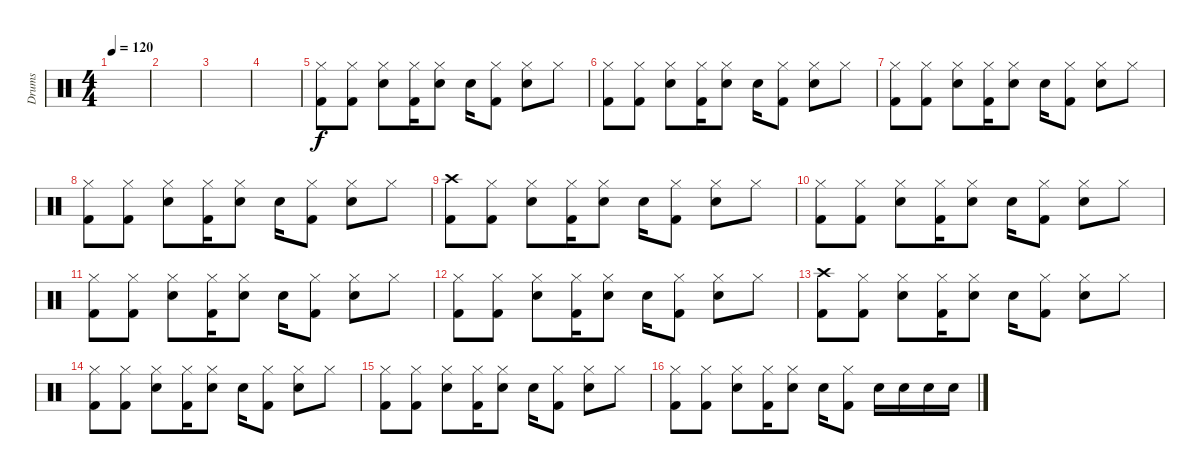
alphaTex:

\track ("Drums" "Drums") {instrument percussion}
\staff {score}
\articulation defaults
\ts (4 4)
\tempo 120
\clef neutral
\ks c
|
|
|
|
("Hi-Hat (closed)" "Kick (hit) 2").8 ("Hi-Hat (closed)" "Kick (hit) 2").8 ("Hi-Hat (closed)" "Electric Snare (hit)").8 ("Hi-Hat (closed)" "Kick (hit) 2").16 ("Hi-Hat (closed)" "Electric Snare (hit)").8 "Electric Snare (hit)".16 ("Hi-Hat (closed)" "Kick (hit) 2").8 ("Hi-Hat (closed)" "Electric Snare (hit)").8 "Hi-Hat (closed)".8 |
("Hi-Hat (closed)" "Kick (hit) 2").8 ("Hi-Hat (closed)" "Kick (hit) 2").8 ("Hi-Hat (closed)" "Electric Snare (hit)").8 ("Hi-Hat (closed)" "Kick (hit) 2").16 ("Hi-Hat (closed)" "Electric Snare (hit)").8 "Electric Snare (hit)".16 ("Hi-Hat (closed)" "Kick (hit) 2").8 ("Hi-Hat (closed)" "Electric Snare (hit)").8 "Hi-Hat (closed)".8 |
("Hi-Hat (closed)" "Kick (hit) 2").8 ("Hi-Hat (closed)" "Kick (hit) 2").8 ("Hi-Hat (closed)" "Electric Snare (hit)").8 ("Hi-Hat (closed)" "Kick (hit) 2").16 ("Hi-Hat (closed)" "Electric Snare (hit)").8 "Electric Snare (hit)".16 ("Hi-Hat (closed)" "Kick (hit) 2").8 ("Hi-Hat (closed)" "Electric Snare (hit)").8 "Hi-Hat (closed)".8 |
("Hi-Hat (closed)" "Kick (hit) 2").8 ("Hi-Hat (closed)" "Kick (hit) 2").8 ("Hi-Hat (closed)" "Electric Snare (hit)").8 ("Hi-Hat (closed)" "Kick (hit) 2").16 ("Hi-Hat (closed)" "Electric Snare (hit)").8 "Electric Snare (hit)".16 ("Hi-Hat (closed)" "Kick (hit) 2").8 ("Hi-Hat (closed)" "Electric Snare (hit)").8 "Hi-Hat (closed)".8 |
("Crash high (hit)" "Kick (hit) 2").8 ("Hi-Hat (closed)" "Kick (hit) 2").8 ("Hi-Hat (closed)" "Electric Snare (hit)").8 ("Hi-Hat (closed)" "Kick (hit) 2").16 ("Hi-Hat (closed)" "Electric Snare (hit)").8 "Electric Snare (hit)".16 ("Hi-Hat (closed)" "Kick (hit) 2").8 ("Hi-Hat (closed)" "Electric Snare (hit)").8 "Hi-Hat (closed)".8 |
("Hi-Hat (closed)" "Kick (hit) 2").8 ("Hi-Hat (closed)" "Kick (hit) 2").8 ("Hi-Hat (closed)" "Electric Snare (hit)").8 ("Hi-Hat (closed)" "Kick (hit) 2").16 ("Hi-Hat (closed)" "Electric Snare (hit)").8 "Electric Snare (hit)".16 ("Hi-Hat (closed)" "Kick (hit) 2").8 ("Hi-Hat (closed)" "Electric Snare (hit)").8 "Hi-Hat (closed)".8 |
("Hi-Hat (closed)" "Kick (hit) 2").8 ("Hi-Hat (closed)" "Kick (hit) 2").8 ("Hi-Hat (closed)" "Electric Snare (hit)").8 ("Hi-Hat (closed)" "Kick (hit) 2").16 ("Hi-Hat (closed)" "Electric Snare (hit)").8 "Electric Snare (hit)".16 ("Hi-Hat (closed)" "Kick (hit) 2").8 ("Hi-Hat (closed)" "Electric Snare (hit)").8 "Hi-Hat (closed)".8 |
("Hi-Hat (closed)" "Kick (hit) 2").8 ("Hi-Hat (closed)" "Kick (hit) 2").8 ("Hi-Hat (closed)" "Electric Snare (hit)").8 ("Hi-Hat (closed)" "Kick (hit) 2").16 ("Hi-Hat (closed)" "Electric Snare (hit)").8 "Electric Snare (hit)".16 ("Hi-Hat (closed)" "Kick (hit) 2").8 ("Hi-Hat (closed)" "Electric Snare (hit)").8 "Hi-Hat (closed)".8 |
("Crash high (hit)" "Kick (hit) 2").8 ("Hi-Hat (closed)" "Kick (hit) 2").8 ("Hi-Hat (closed)" "Electric Snare (hit)").8 ("Hi-Hat (closed)" "Kick (hit) 2").16 ("Hi-Hat (closed)" "Electric Snare (hit)").8 "Electric Snare (hit)".16 ("Hi-Hat (closed)" "Kick (hit) 2").8 ("Hi-Hat (closed)" "Electric Snare (hit)").8 "Hi-Hat (closed)".8 |
("Hi-Hat (closed)" "Kick (hit) 2").8 ("Hi-Hat (closed)" "Kick (hit) 2").8 ("Hi-Hat (closed)" "Electric Snare (hit)").8 ("Hi-Hat (closed)" "Kick (hit) 2").16 ("Hi-Hat (closed)" "Electric Snare (hit)").8 "Electric Snare (hit)".16 ("Hi-Hat (closed)" "Kick (hit) 2").8 ("Hi-Hat (closed)" "Electric Snare (hit)").8 "Hi-Hat (closed)".8 |
("Hi-Hat (closed)" "Kick (hit) 2").8 ("Hi-Hat (closed)" "Kick (hit) 2").8 ("Hi-Hat (closed)" "Electric Snare (hit)").8 ("Hi-Hat (closed)" "Kick (hit) 2").16 ("Hi-Hat (closed)" "Electric Snare (hit)").8 "Electric Snare (hit)".16 ("Hi-Hat (closed)" "Kick (hit) 2").8 ("Hi-Hat (closed)" "Electric Snare (hit)").8 "Hi-Hat (closed)".8 |
("Hi-Hat (closed)" "Kick (hit) 2").8 ("Hi-Hat (closed)" "Kick (hit) 2").8 ("Hi-Hat (closed)" "Electric Snare (hit)").8 ("Hi-Hat (closed)" "Kick (hit) 2").16 ("Hi-Hat (closed)" "Electric Snare (hit)").8 "Electric Snare (hit)".16 ("Hi-Hat (closed)" "Kick (hit) 2").8 "Electric Snare (hit)".16 "Electric Snare (hit)".16 "Electric Snare (hit)".16 "Electric Snare (hit)".16
